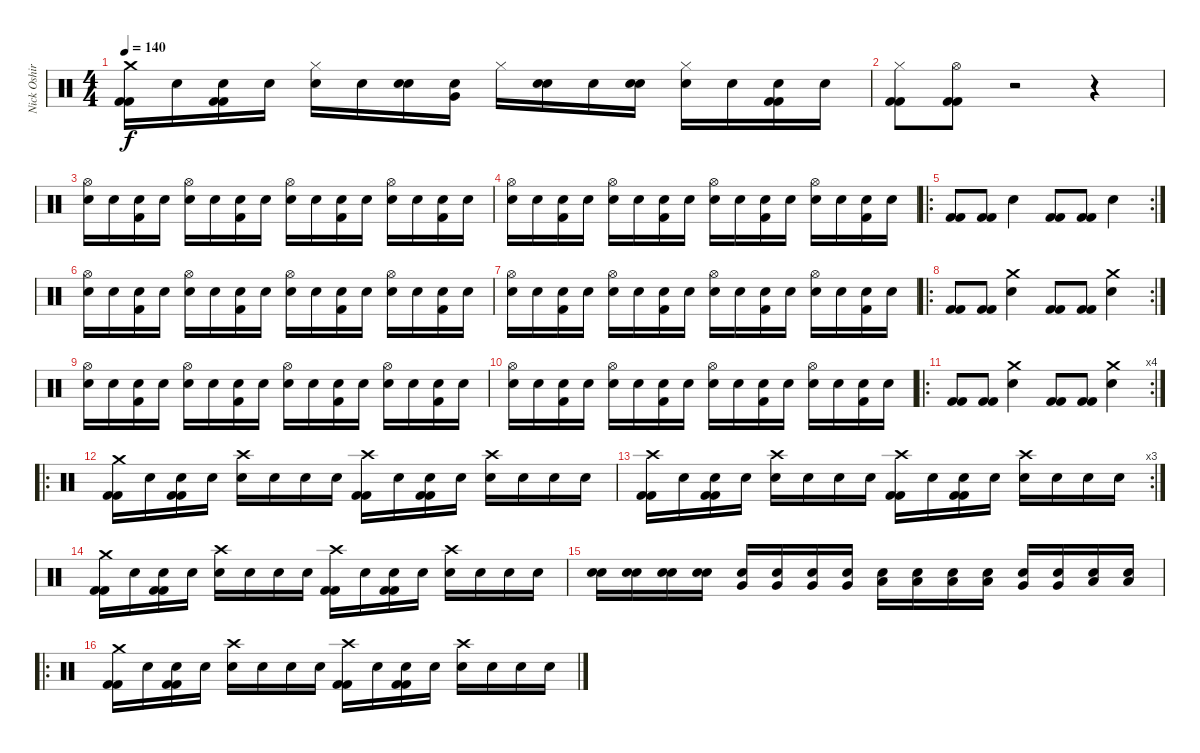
\track ("Nick Oshiro / Drums" "Nick Oshir") {instrument percussion}
\staff {score}
\articulation defaults
\ts (4 4)
\tempo 140
\clef neutral
\ks c
("Crash medium (hit)" "Kick (hit) 2" "Kick (hit) 2").16{dy f} "Snare (hit)".16 ("Snare (hit)" "Kick (hit) 2" "Kick (hit) 2").16 "Snare (hit)".16 ("Hi-Hat (closed)" "Electric Snare (hit)").16 "Snare (hit)".16 ("Snare (hit)" "Electric Snare (hit)").16 ("Snare (hit)" "Very Low Tom (hit)").16 "Hi-Hat (closed)".16 ("Snare (hit)" "Electric Snare (hit)").16 "Snare (hit)".16 ("Snare (hit)" "Electric Snare (hit)").16 ("Hi-Hat (closed)" "Electric Snare (hit)").16 "Snare (hit)".16 ("Snare (hit)" "Kick (hit) 2" "Kick (hit) 2").16 "Snare (hit)".16 |
("Hi-Hat (closed)" "Kick (hit) 2" "Kick (hit) 2").8 ("Hi-Hat (open)" "Kick (hit) 2" "Kick (hit) 2").8 r.2 r.4 |
("Hi-Hat (open)" "Electric Snare (hit)").16 "Snare (hit)".16 ("Snare (hit)" "Kick (hit) 2").16 "Snare (hit)".16 ("Hi-Hat (open)" "Electric Snare (hit)").16 "Snare (hit)".16 ("Snare (hit)" "Kick (hit) 2").16 "Snare (hit)".16 ("Hi-Hat (open)" "Electric Snare (hit)").16 "Snare (hit)".16 ("Snare (hit)" "Kick (hit) 2").16 "Snare (hit)".16 ("Hi-Hat (open)" "Electric Snare (hit)").16 "Snare (hit)".16 ("Snare (hit)" "Kick (hit) 2").16 "Snare (hit)".16 |
("Hi-Hat (open)" "Electric Snare (hit)").16 "Snare (hit)".16 ("Snare (hit)" "Kick (hit) 2").16 "Snare (hit)".16 ("Hi-Hat (open)" "Electric Snare (hit)").16 "Snare (hit)".16 ("Snare (hit)" "Kick (hit) 2").16 "Snare (hit)".16 ("Hi-Hat (open)" "Electric Snare (hit)").16 "Snare (hit)".16 ("Snare (hit)" "Kick (hit) 2").16 "Snare (hit)".16 ("Hi-Hat (open)" "Electric Snare (hit)").16 "Snare (hit)".16 ("Snare (hit)" "Kick (hit) 2").16 "Snare (hit)".16 |
\ro
\rc 2
("Kick (hit) 2" "Kick (hit) 2").8 ("Kick (hit) 2" "Kick (hit) 2").8 "Electric Snare (hit)".4 ("Kick (hit) 2" "Kick (hit) 2").8 ("Kick (hit) 2" "Kick (hit) 2").8 "Electric Snare (hit)".4 |
("Hi-Hat (open)" "Electric Snare (hit)").16 "Snare (hit)".16 ("Snare (hit)" "Kick (hit) 2").16 "Snare (hit)".16 ("Hi-Hat (open)" "Electric Snare (hit)").16 "Snare (hit)".16 ("Snare (hit)" "Kick (hit) 2").16 "Snare (hit)".16 ("Hi-Hat (open)" "Electric Snare (hit)").16 "Snare (hit)".16 ("Snare (hit)" "Kick (hit) 2").16 "Snare (hit)".16 ("Hi-Hat (open)" "Electric Snare (hit)").16 "Snare (hit)".16 ("Snare (hit)" "Kick (hit) 2").16 "Snare (hit)".16 |
("Hi-Hat (open)" "Electric Snare (hit)").16 "Snare (hit)".16 ("Snare (hit)" "Kick (hit) 2").16 "Snare (hit)".16 ("Hi-Hat (open)" "Electric Snare (hit)").16 "Snare (hit)".16 ("Snare (hit)" "Kick (hit) 2").16 "Snare (hit)".16 ("Hi-Hat (open)" "Electric Snare (hit)").16 "Snare (hit)".16 ("Snare (hit)" "Kick (hit) 2").16 "Snare (hit)".16 ("Hi-Hat (open)" "Electric Snare (hit)").16 "Snare (hit)".16 ("Snare (hit)" "Kick (hit) 2").16 "Snare (hit)".16 |
\ro
\rc 2
("Kick (hit) 2" "Kick (hit) 2").8 ("Kick (hit) 2" "Kick (hit) 2").8 ("Crash medium (hit)" "Electric Snare (hit)").4 ("Kick (hit) 2" "Kick (hit) 2").8 ("Kick (hit) 2" "Kick (hit) 2").8 ("Crash medium (hit)" "Electric Snare (hit)").4 |
("Hi-Hat (open)" "Electric Snare (hit)").16 "Snare (hit)".16 ("Snare (hit)" "Kick (hit) 2").16 "Snare (hit)".16 ("Hi-Hat (open)" "Electric Snare (hit)").16 "Snare (hit)".16 ("Snare (hit)" "Kick (hit) 2").16 "Snare (hit)".16 ("Hi-Hat (open)" "Electric Snare (hit)").16 "Snare (hit)".16 ("Snare (hit)" "Kick (hit) 2").16 "Snare (hit)".16 ("Hi-Hat (open)" "Electric Snare (hit)").16 "Snare (hit)".16 ("Snare (hit)" "Kick (hit) 2").16 "Snare (hit)".16 |
("Hi-Hat (open)" "Electric Snare (hit)").16 "Snare (hit)".16 ("Snare (hit)" "Kick (hit) 2").16 "Snare (hit)".16 ("Hi-Hat (open)" "Electric Snare (hit)").16 "Snare (hit)".16 ("Snare (hit)" "Kick (hit) 2").16 "Snare (hit)".16 ("Hi-Hat (open)" "Electric Snare (hit)").16 "Snare (hit)".16 ("Snare (hit)" "Kick (hit) 2").16 "Snare (hit)".16 ("Hi-Hat (open)" "Electric Snare (hit)").16 "Snare (hit)".16 ("Snare (hit)" "Kick (hit) 2").16 "Snare (hit)".16 |
\ro
\rc 4
("Kick (hit) 2" "Kick (hit) 2").8 ("Kick (hit) 2" "Kick (hit) 2").8 ("Crash medium (hit)" "Electric Snare (hit)").4 ("Kick (hit) 2" "Kick (hit) 2").8 ("Kick (hit) 2" "Kick (hit) 2").8 ("Crash medium (hit)" "Electric Snare (hit)").4 |
\ro
("Crash medium (hit)" "Kick (hit) 2" "Kick (hit) 2").16 "Snare (hit)".16 ("Snare (hit)" "Kick (hit) 2" "Kick (hit) 2").16 "Snare (hit)".16 ("Crash high (hit)" "Electric Snare (hit)").16 "Snare (hit)".16 "Snare (hit)".16 "Snare (hit)".16 ("Crash high (hit)" "Kick (hit) 2" "Kick (hit) 2").16 "Snare (hit)".16 ("Snare (hit)" "Kick (hit) 2" "Kick (hit) 2").16 "Snare (hit)".16 ("Crash high (hit)" "Electric Snare (hit)").16 "Snare (hit)".16 "Snare (hit)".16 "Snare (hit)".16 |
\rc 3
("Crash high (hit)" "Kick (hit) 2" "Kick (hit) 2").16 "Snare (hit)".16 ("Snare (hit)" "Kick (hit) 2" "Kick (hit) 2").16 "Snare (hit)".16 ("Crash high (hit)" "Electric Snare (hit)").16 "Snare (hit)".16 "Snare (hit)".16 "Snare (hit)".16 ("Crash high (hit)" "Kick (hit) 2" "Kick (hit) 2").16 "Snare (hit)".16 ("Snare (hit)" "Kick (hit) 2" "Kick (hit) 2").16 "Snare (hit)".16 ("Crash high (hit)" "Electric Snare (hit)").16 "Snare (hit)".16 "Snare (hit)".16 "Snare (hit)".16 |
("Crash medium (hit)" "Kick (hit) 2" "Kick (hit) 2").16 "Snare (hit)".16 ("Snare (hit)" "Kick (hit) 2" "Kick (hit) 2").16 "Snare (hit)".16 ("Crash high (hit)" "Electric Snare (hit)").16 "Snare (hit)".16 "Snare (hit)".16 "Snare (hit)".16 ("Crash high (hit)" "Kick (hit) 2" "Kick (hit) 2").16 "Snare (hit)".16 ("Snare (hit)" "Kick (hit) 2" "Kick (hit) 2").16 "Snare (hit)".16 ("Crash high (hit)" "Electric Snare (hit)").16 "Snare (hit)".16 "Snare (hit)".16 "Snare (hit)".16 |
("Snare (hit)" "Electric Snare (hit)").16 ("Snare (hit)" "Electric Snare (hit)").16 ("Snare (hit)" "Electric Snare (hit)").16 ("Snare (hit)" "Electric Snare (hit)").16 ("Snare (hit)" "Very Low Tom (hit)").16 ("Snare (hit)" "Very Low Tom (hit)").16 ("Snare (hit)" "Very Low Tom (hit)").16 ("Snare (hit)" "Very Low Tom (hit)").16 ("Snare (hit)" "Low Floor Tom (hit)").16 ("Snare (hit)" "Low Floor Tom (hit)").16 ("Snare (hit)" "Low Floor Tom (hit)").16 ("Snare (hit)" "Low Floor Tom (hit)").16 ("Snare (hit)" "Very Low Tom (hit)").16 ("Snare (hit)" "Very Low Tom (hit)").16 ("Snare (hit)" "Low Floor Tom (hit)").16 ("Snare (hit)" "Low Floor Tom (hit)").16 |
\ro
("Crash medium (hit)" "Kick (hit) 2" "Kick (hit) 2").16 "Snare (hit)".16 ("Snare (hit)" "Kick (hit) 2" "Kick (hit) 2").16 "Snare (hit)".16 ("Crash high (hit)" "Electric Snare (hit)").16 "Snare (hit)".16 "Snare (hit)".16 "Snare (hit)".16 ("Crash high (hit)" "Kick (hit) 2" "Kick (hit) 2").16 "Snare (hit)".16 ("Snare (hit)" "Kick (hit) 2" "Kick (hit) 2").16 "Snare (hit)".16 ("Crash high (hit)" "Electric Snare (hit)").16 "Snare (hit)".16 "Snare (hit)".16 "Snare (hit)".16
